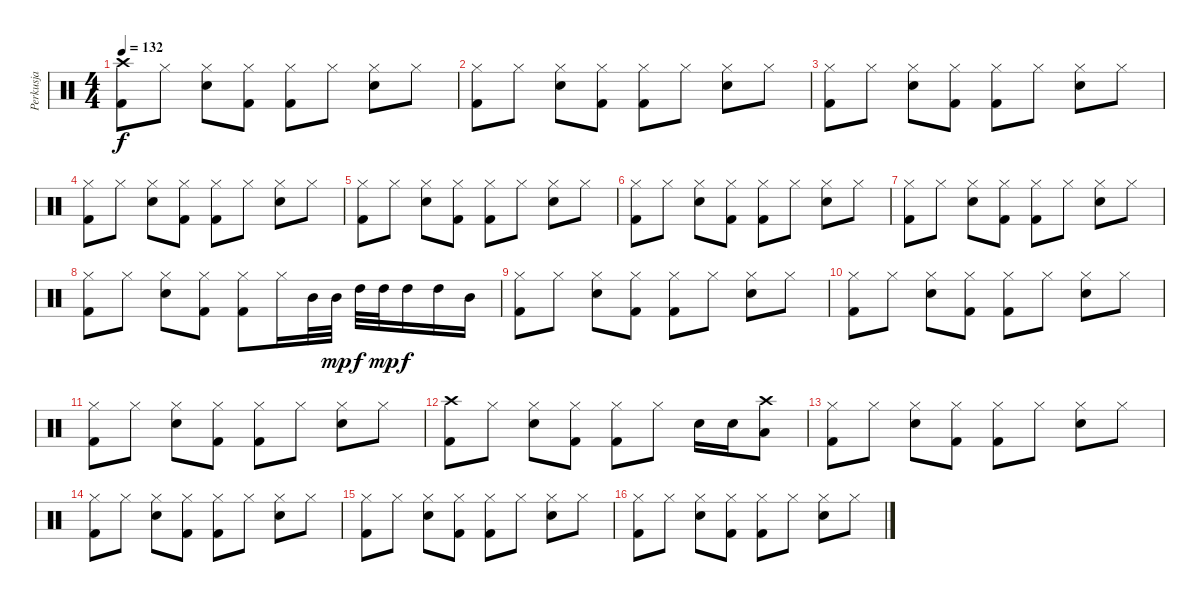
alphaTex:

\track ("Perkusja" "Perkusja") {instrument percussion}
\staff {score}
\articulation defaults
\ts (4 4)
\tempo 132
\clef neutral
\ks c
("Kick (hit) 2" "Crash high (hit)").8{dy f} "Hi-Hat (closed)".8 ("Snare (hit) 2" "Hi-Hat (closed)").8 ("Kick (hit) 2" "Hi-Hat (closed)").8 ("Kick (hit) 2" "Hi-Hat (closed)").8 "Hi-Hat (closed)".8 ("Snare (hit) 2" "Hi-Hat (closed)").8 "Hi-Hat (closed)".8 |
("Kick (hit) 2" "Hi-Hat (closed)").8 "Hi-Hat (closed)".8 ("Snare (hit) 2" "Hi-Hat (closed)").8 ("Kick (hit) 2" "Hi-Hat (closed)").8 ("Kick (hit) 2" "Hi-Hat (closed)").8 "Hi-Hat (closed)".8 ("Snare (hit) 2" "Hi-Hat (closed)").8 "Hi-Hat (closed)".8 |
("Kick (hit) 2" "Hi-Hat (closed)").8 "Hi-Hat (closed)".8 ("Snare (hit) 2" "Hi-Hat (closed)").8 ("Kick (hit) 2" "Hi-Hat (closed)").8 ("Kick (hit) 2" "Hi-Hat (closed)").8 "Hi-Hat (closed)".8 ("Snare (hit) 2" "Hi-Hat (closed)").8 "Hi-Hat (closed)".8 |
("Kick (hit) 2" "Hi-Hat (closed)").8 "Hi-Hat (closed)".8 ("Snare (hit) 2" "Hi-Hat (closed)").8 ("Kick (hit) 2" "Hi-Hat (closed)").8 ("Kick (hit) 2" "Hi-Hat (closed)").8 "Hi-Hat (closed)".8 ("Snare (hit) 2" "Hi-Hat (closed)").8 "Hi-Hat (closed)".8 |
("Kick (hit) 2" "Hi-Hat (closed)").8 "Hi-Hat (closed)".8 ("Snare (hit) 2" "Hi-Hat (closed)").8 ("Kick (hit) 2" "Hi-Hat (closed)").8 ("Kick (hit) 2" "Hi-Hat (closed)").8 "Hi-Hat (closed)".8 ("Snare (hit) 2" "Hi-Hat (closed)").8 "Hi-Hat (closed)".8 |
("Kick (hit) 2" "Hi-Hat (closed)").8 "Hi-Hat (closed)".8 ("Snare (hit) 2" "Hi-Hat (closed)").8 ("Kick (hit) 2" "Hi-Hat (closed)").8 ("Kick (hit) 2" "Hi-Hat (closed)").8 "Hi-Hat (closed)".8 ("Snare (hit) 2" "Hi-Hat (closed)").8 "Hi-Hat (closed)".8 |
("Kick (hit) 2" "Hi-Hat (closed)").8 "Hi-Hat (closed)".8 ("Snare (hit) 2" "Hi-Hat (closed)").8 ("Kick (hit) 2" "Hi-Hat (closed)").8 ("Kick (hit) 2" "Hi-Hat (closed)").8 "Hi-Hat (closed)".8 ("Snare (hit) 2" "Hi-Hat (closed)").8 "Hi-Hat (closed)".8 |
("Kick (hit) 2" "Hi-Hat (closed)").8 "Hi-Hat (closed)".8 ("Snare (hit) 2" "Hi-Hat (closed)").8 ("Kick (hit) 2" "Hi-Hat (closed)").8 ("Kick (hit) 2" "Hi-Hat (closed)").8 "Hi-Hat (closed)".16 "Mid Tom (hit)".32 "Mid Tom (hit)".32{dy mp} "High Tom (hit)".32{dy f} "High Tom (hit)".32{dy mp} "High Tom (hit)".16{dy f} "High Tom (hit)".16 "Mid Tom (hit)".16 |
("Kick (hit) 2" "Hi-Hat (closed)").8 "Hi-Hat (closed)".8 ("Snare (hit) 2" "Hi-Hat (closed)").8 ("Kick (hit) 2" "Hi-Hat (closed)").8 ("Kick (hit) 2" "Hi-Hat (closed)").8 "Hi-Hat (closed)".8 ("Snare (hit) 2" "Hi-Hat (closed)").8 "Hi-Hat (closed)".8 |
("Kick (hit) 2" "Hi-Hat (closed)").8 "Hi-Hat (closed)".8 ("Snare (hit) 2" "Hi-Hat (closed)").8 ("Kick (hit) 2" "Hi-Hat (closed)").8 ("Kick (hit) 2" "Hi-Hat (closed)").8 "Hi-Hat (closed)".8 ("Snare (hit) 2" "Hi-Hat (closed)").8 "Hi-Hat (closed)".8 |
("Kick (hit) 2" "Hi-Hat (closed)").8 "Hi-Hat (closed)".8 ("Snare (hit) 2" "Hi-Hat (closed)").8 ("Kick (hit) 2" "Hi-Hat (closed)").8 ("Kick (hit) 2" "Hi-Hat (closed)").8 "Hi-Hat (closed)".8 ("Snare (hit) 2" "Hi-Hat (closed)").8 "Hi-Hat (closed)".8 |
("Kick (hit) 2" "Crash high (hit)").8 "Hi-Hat (closed)".8 ("Snare (hit) 2" "Hi-Hat (closed)").8 ("Kick (hit) 2" "Hi-Hat (closed)").8 ("Kick (hit) 2" "Hi-Hat (closed)").8 "Hi-Hat (closed)".8 "Snare (hit) 2".16 "Snare (hit) 2".16 ("Low Tom (hit)" "Crash high (hit)").8 |
("Kick (hit) 2" "Hi-Hat (closed)").8 "Hi-Hat (closed)".8 ("Snare (hit) 2" "Hi-Hat (closed)").8 ("Kick (hit) 2" "Hi-Hat (closed)").8 ("Kick (hit) 2" "Hi-Hat (closed)").8 "Hi-Hat (closed)".8 ("Snare (hit) 2" "Hi-Hat (closed)").8 "Hi-Hat (closed)".8 |
("Kick (hit) 2" "Hi-Hat (closed)").8 "Hi-Hat (closed)".8 ("Snare (hit) 2" "Hi-Hat (closed)").8 ("Kick (hit) 2" "Hi-Hat (closed)").8 ("Kick (hit) 2" "Hi-Hat (closed)").8 "Hi-Hat (closed)".8 ("Snare (hit) 2" "Hi-Hat (closed)").8 "Hi-Hat (closed)".8 |
("Kick (hit) 2" "Hi-Hat (closed)").8 "Hi-Hat (closed)".8 ("Snare (hit) 2" "Hi-Hat (closed)").8 ("Kick (hit) 2" "Hi-Hat (closed)").8 ("Kick (hit) 2" "Hi-Hat (closed)").8 "Hi-Hat (closed)".8 ("Snare (hit) 2" "Hi-Hat (closed)").8 "Hi-Hat (closed)".8 |
("Kick (hit) 2" "Hi-Hat (closed)").8 "Hi-Hat (closed)".8 ("Snare (hit) 2" "Hi-Hat (closed)").8 ("Kick (hit) 2" "Hi-Hat (closed)").8 ("Kick (hit) 2" "Hi-Hat (closed)").8 "Hi-Hat (closed)".8 ("Snare (hit) 2" "Hi-Hat (closed)").8 "Hi-Hat (closed)".8
